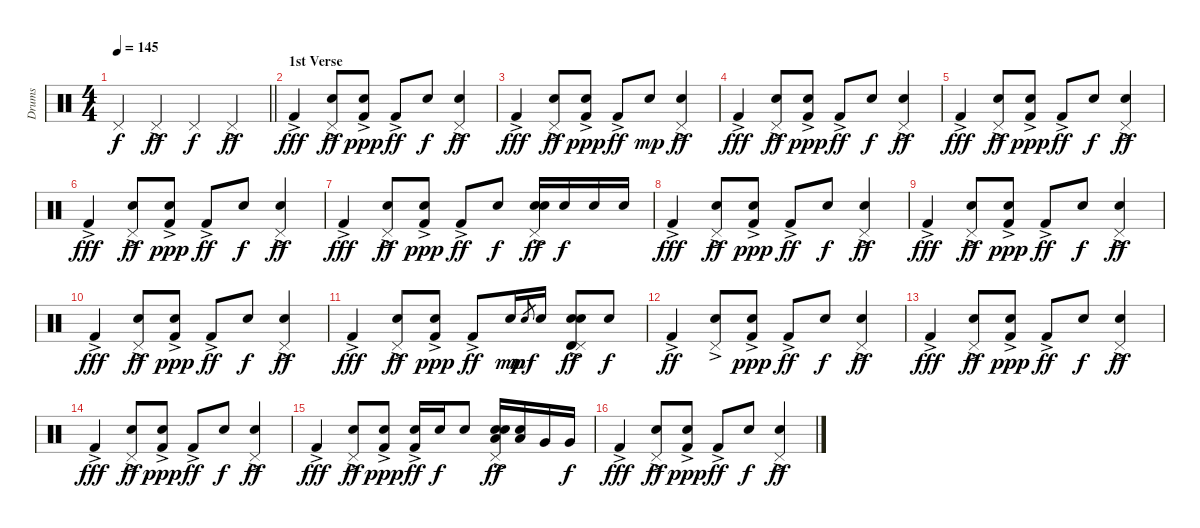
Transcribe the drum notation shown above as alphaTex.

\track ("Drums" "Drums") {instrument percussion}
\staff {score}
\articulation defaults
\ts (4 4)
\tempo 145
\clef neutral
\barLineRight lightlight
\ks c "Pedal Hi-Hat (hit)".4{dy f} "Pedal Hi-Hat (hit)"{ac}.4{dy ff} "Pedal Hi-Hat (hit)".4{dy f} "Pedal Hi-Hat (hit)"{ac}.4{dy ff}
|
\section ("" "1st Verse")
"Kick (hit) 2"{ac}.4{dy fff} ("Pedal Hi-Hat (hit)" "Hand Clap (hit)"{ac}).8{dy ff} ("Kick (hit) 2"{ac} "Hand Clap (hit)").8{dy ppp} "Kick (hit) 2"{ac}.8{dy ff} "Hand Clap (hit)".8{dy f} ("Pedal Hi-Hat (hit)" "Hand Clap (hit)"{ac}).4{dy ff} |
"Kick (hit) 2"{ac}.4{dy fff} ("Pedal Hi-Hat (hit)" "Hand Clap (hit)"{ac}).8{dy ff} ("Kick (hit) 2"{ac} "Hand Clap (hit)").8{dy ppp} "Kick (hit) 2"{ac}.8{dy ff} "Hand Clap (hit)".8{dy mp} ("Pedal Hi-Hat (hit)" "Hand Clap (hit)"{ac}).4{dy ff} |
"Kick (hit) 2"{ac}.4{dy fff} ("Pedal Hi-Hat (hit)" "Hand Clap (hit)"{ac}).8{dy ff} ("Kick (hit) 2"{ac} "Hand Clap (hit)").8{dy ppp} "Kick (hit) 2"{ac}.8{dy ff} "Hand Clap (hit)".8{dy f} ("Pedal Hi-Hat (hit)" "Hand Clap (hit)"{ac}).4{dy ff} |
"Kick (hit) 2"{ac}.4{dy fff} ("Pedal Hi-Hat (hit)" "Hand Clap (hit)"{ac}).8{dy ff} ("Kick (hit) 2"{ac} "Hand Clap (hit)").8{dy ppp} "Kick (hit) 2"{ac}.8{dy ff} "Hand Clap (hit)".8{dy f} ("Pedal Hi-Hat (hit)" "Hand Clap (hit)"{ac}).4{dy ff} |
"Kick (hit) 2"{ac}.4{dy fff} ("Pedal Hi-Hat (hit)" "Hand Clap (hit)"{ac}).8{dy ff} ("Kick (hit) 2"{ac} "Hand Clap (hit)").8{dy ppp} "Kick (hit) 2"{ac}.8{dy ff} "Hand Clap (hit)".8{dy f} ("Pedal Hi-Hat (hit)" "Hand Clap (hit)"{ac}).4{dy ff} |
"Kick (hit) 2"{ac}.4{dy fff} ("Pedal Hi-Hat (hit)" "Hand Clap (hit)"{ac}).8{dy ff} ("Kick (hit) 2"{ac} "Hand Clap (hit)").8{dy ppp} "Kick (hit) 2"{ac}.8{dy ff} "Hand Clap (hit)".8{dy f} ("Pedal Hi-Hat (hit)" "Electric Snare (hit)" "Hand Clap (hit)"{ac}).16{dy ff} "Electric Snare (hit)".16{dy f} "Electric Snare (hit)".16 "Electric Snare (hit)".16 |
"Kick (hit) 2"{ac}.4{dy fff} ("Pedal Hi-Hat (hit)" "Hand Clap (hit)"{ac}).8{dy ff} ("Kick (hit) 2"{ac} "Hand Clap (hit)").8{dy ppp} "Kick (hit) 2"{ac}.8{dy ff} "Hand Clap (hit)".8{dy f} ("Pedal Hi-Hat (hit)" "Hand Clap (hit)"{ac}).4{dy ff} |
"Kick (hit) 2"{ac}.4{dy fff} ("Pedal Hi-Hat (hit)" "Hand Clap (hit)"{ac}).8{dy ff} ("Kick (hit) 2"{ac} "Hand Clap (hit)").8{dy ppp} "Kick (hit) 2"{ac}.8{dy ff} "Hand Clap (hit)".8{dy f} ("Pedal Hi-Hat (hit)" "Hand Clap (hit)"{ac}).4{dy ff} |
"Kick (hit) 2"{ac}.4{dy fff} ("Pedal Hi-Hat (hit)" "Hand Clap (hit)"{ac}).8{dy ff} ("Kick (hit) 2"{ac} "Hand Clap (hit)").8{dy ppp} "Kick (hit) 2"{ac}.8{dy ff} "Hand Clap (hit)".8{dy f} ("Pedal Hi-Hat (hit)" "Hand Clap (hit)"{ac}).4{dy ff} |
"Kick (hit) 2"{ac}.4{dy fff} ("Pedal Hi-Hat (hit)" "Hand Clap (hit)"{ac}).8{dy ff} ("Kick (hit) 2"{ac} "Hand Clap (hit)").8{dy ppp} "Kick (hit) 2"{ac}.8{dy ff} "Hand Clap (hit)".16{dy mp} "Electric Snare (hit)".8{gr dy mf} "Electric Snare (hit)".16 ("Electric Snare (hit)" "Timbale high (hit)" "Hand Clap (hit)"{ac} "Pedal Hi-Hat (hit)").8{dy ff} "Electric Snare (hit)".8{dy f} |
"Kick (hit) 2"{ac}.4{dy ff} ("Pedal Hi-Hat (hit)" "Hand Clap (hit)"{ac}).8 ("Kick (hit) 2"{ac} "Hand Clap (hit)").8{dy ppp} "Kick (hit) 2"{ac}.8{dy ff} "Hand Clap (hit)".8{dy f} ("Pedal Hi-Hat (hit)" "Hand Clap (hit)"{ac}).4{dy ff} |
"Kick (hit) 2"{ac}.4{dy fff} ("Pedal Hi-Hat (hit)" "Hand Clap (hit)"{ac}).8{dy ff} ("Kick (hit) 2"{ac} "Hand Clap (hit)").8{dy ppp} "Kick (hit) 2"{ac}.8{dy ff} "Hand Clap (hit)".8{dy f} ("Pedal Hi-Hat (hit)" "Hand Clap (hit)"{ac}).4{dy ff} |
"Kick (hit) 2"{ac}.4{dy fff} ("Pedal Hi-Hat (hit)" "Hand Clap (hit)"{ac}).8{dy ff} ("Kick (hit) 2"{ac} "Hand Clap (hit)").8{dy ppp} "Kick (hit) 2"{ac}.8{dy ff} "Hand Clap (hit)".8{dy f} ("Pedal Hi-Hat (hit)" "Hand Clap (hit)"{ac}).4{dy ff} |
"Kick (hit) 2"{ac}.4{dy fff} ("Pedal Hi-Hat (hit)" "Hand Clap (hit)"{ac}).8{dy ff} ("Kick (hit) 2"{ac} "Hand Clap (hit)").8{dy ppp} ("Kick (hit) 2"{ac} "Electric Snare (hit)").16{dy ff} "Electric Snare (hit)".16{dy f} "Hand Clap (hit)".8 ("Electric Snare (hit)" "Low Tom (hit)" "Hand Clap (hit)"{ac} "Pedal Hi-Hat (hit)").16{dy ff} ("Electric Snare (hit)" "Low Tom (hit)").16 "Very Low Tom (hit)".16 "Very Low Tom (hit)".16{dy f} |
"Kick (hit) 2"{ac}.4{dy fff} ("Pedal Hi-Hat (hit)" "Hand Clap (hit)"{ac}).8{dy ff} ("Kick (hit) 2"{ac} "Hand Clap (hit)").8{dy ppp} "Kick (hit) 2"{ac}.8{dy ff} "Hand Clap (hit)".8{dy f} ("Pedal Hi-Hat (hit)" "Hand Clap (hit)"{ac}).4{dy ff}
